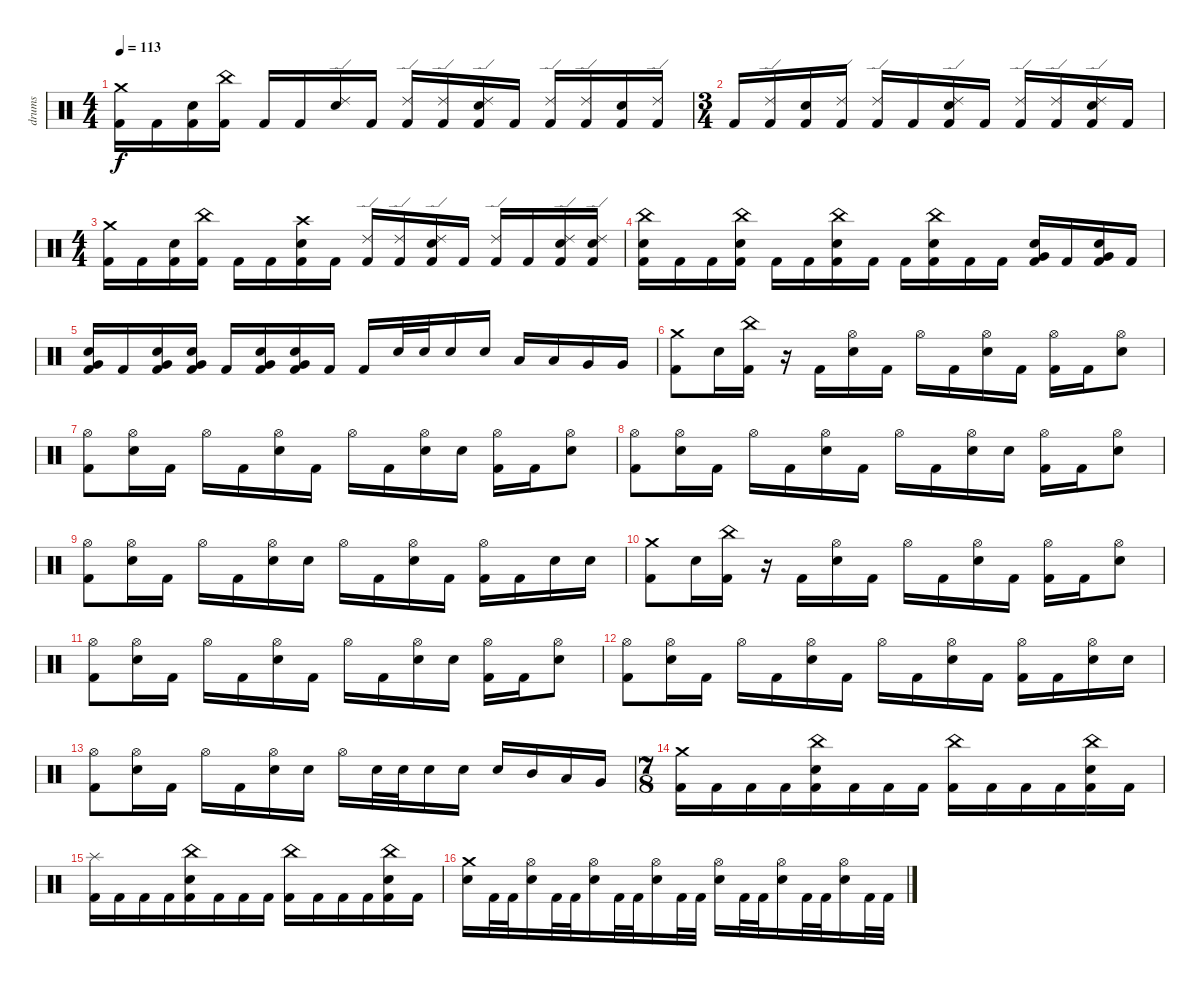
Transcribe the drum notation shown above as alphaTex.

\track ("drums" "drums") {instrument percussion}
\staff {score}
\articulation defaults
\ts (4 4)
\tempo 113
\clef neutral
\ks c
("Crash medium (hit)" "Kick (hit) 2").16{dy f} "Kick (hit) 2".16 ("Kick (hit) 2" "Electric Snare (hit)").16 ("China (hit)" "Kick (hit) 2").16 "Kick (hit) 2".16 "Kick (hit) 2".16 ("Ride (edge) 2" "Electric Snare (hit)").16 "Kick (hit) 2".16 ("Ride (edge) 2" "Kick (hit) 2").16 ("Ride (edge) 2" "Kick (hit) 2").16 ("Ride (edge) 2" "Kick (hit) 2" "Electric Snare (hit)").16 "Kick (hit) 2".16 ("Ride (edge) 2" "Kick (hit) 2").16 ("Ride (edge) 2" "Kick (hit) 2").16 ("Electric Snare (hit)" "Kick (hit) 2").16 ("Ride (edge) 2" "Kick (hit) 2").16 |
\ts (3 4)
"Kick (hit) 2".16 ("Ride (edge) 2" "Kick (hit) 2").16 ("Electric Snare (hit)" "Kick (hit) 2").16 ("Ride (edge) 2" "Kick (hit) 2").16 ("Ride (edge) 2" "Kick (hit) 2").16 "Kick (hit) 2".16 ("Ride (edge) 2" "Electric Snare (hit)" "Kick (hit) 2").16 "Kick (hit) 2".16 ("Ride (edge) 2" "Kick (hit) 2").16 ("Ride (edge) 2" "Kick (hit) 2").16 ("Ride (edge) 2" "Electric Snare (hit)" "Kick (hit) 2").16 "Kick (hit) 2".16 |
\ts (4 4)
("Crash medium (hit)" "Kick (hit) 2").16 "Kick (hit) 2".16 ("Electric Snare (hit)" "Kick (hit) 2").16 ("China (hit)" "Kick (hit) 2").16 "Kick (hit) 2".16 "Kick (hit) 2".16 ("Crash high (hit)" "Electric Snare (hit)" "Kick (hit) 2").16 "Kick (hit) 2".16 ("Ride (edge) 2" "Kick (hit) 2").16 ("Ride (edge) 2" "Kick (hit) 2").16 ("Ride (edge) 2" "Electric Snare (hit)" "Kick (hit) 2").16 "Kick (hit) 2".16 ("Ride (edge) 2" "Kick (hit) 2").16 "Kick (hit) 2".16 ("Ride (edge) 2" "Electric Snare (hit)" "Kick (hit) 2").16 ("Ride (edge) 2" "Electric Snare (hit)" "Kick (hit) 2").16 |
("China (hit)" "Kick (hit) 2" "Electric Snare (hit)").16 "Kick (hit) 2".16 "Kick (hit) 2".16 ("China (hit)" "Electric Snare (hit)" "Kick (hit) 2").16 "Kick (hit) 2".16 "Kick (hit) 2".16 ("China (hit)" "Electric Snare (hit)" "Kick (hit) 2").16 "Kick (hit) 2".16 "Kick (hit) 2".16 ("China (hit)" "Electric Snare (hit)" "Kick (hit) 2").16 "Kick (hit) 2".16 "Kick (hit) 2".16 ("Very Low Tom (hit)" "Electric Snare (hit)" "Kick (hit) 2").16 "Kick (hit) 2".16 ("Very Low Tom (hit)" "Electric Snare (hit)" "Kick (hit) 2").16 "Kick (hit) 2".16 |
("Very Low Tom (hit)" "Kick (hit) 2" "Electric Snare (hit)").16 "Kick (hit) 2".16 ("Very Low Tom (hit)" "Electric Snare (hit)" "Kick (hit) 2").16 ("Very Low Tom (hit)" "Electric Snare (hit)" "Kick (hit) 2").16 "Kick (hit) 2".16 ("Very Low Tom (hit)" "Electric Snare (hit)" "Kick (hit) 2").16 ("Very Low Tom (hit)" "Electric Snare (hit)" "Kick (hit) 2").16 "Kick (hit) 2".16 "Kick (hit) 2".16 "Electric Snare (hit)".32 "Electric Snare (hit)".32 "Electric Snare (hit)".16 "Electric Snare (hit)".16 "Low Tom (hit)".16 "Low Tom (hit)".16 "Very Low Tom (hit)".16 "Very Low Tom (hit)".16 |
("Crash medium (hit)" "Kick (hit) 2").8 "Electric Snare (hit)".16 ("China (hit)" "Kick (hit) 2").16 r.16 "Kick (hit) 2".16 ("Hi-Hat (open)" "Electric Snare (hit)").16 "Kick (hit) 2".16 "Hi-Hat (open)".16 "Kick (hit) 2".16 ("Hi-Hat (open)" "Electric Snare (hit)").16 "Kick (hit) 2".16 ("Hi-Hat (open)" "Kick (hit) 2").16 "Kick (hit) 2".16 ("Hi-Hat (open)" "Electric Snare (hit)").8 |
("Hi-Hat (open)" "Kick (hit) 2").8 ("Hi-Hat (open)" "Electric Snare (hit)").16 "Kick (hit) 2".16 "Hi-Hat (open)".16 "Kick (hit) 2".16 ("Hi-Hat (open)" "Electric Snare (hit)").16 "Kick (hit) 2".16 "Hi-Hat (open)".16 "Kick (hit) 2".16 ("Hi-Hat (open)" "Electric Snare (hit)").16 "Electric Snare (hit)".16 ("Hi-Hat (open)" "Kick (hit) 2").16 "Kick (hit) 2".16 ("Hi-Hat (open)" "Electric Snare (hit)").8 |
("Hi-Hat (open)" "Kick (hit) 2").8 ("Hi-Hat (open)" "Electric Snare (hit)").16 "Kick (hit) 2".16 "Hi-Hat (open)".16 "Kick (hit) 2".16 ("Hi-Hat (open)" "Electric Snare (hit)").16 "Kick (hit) 2".16 "Hi-Hat (open)".16 "Kick (hit) 2".16 ("Hi-Hat (open)" "Electric Snare (hit)").16 "Electric Snare (hit)".16 ("Hi-Hat (open)" "Kick (hit) 2").16 "Kick (hit) 2".16 ("Hi-Hat (open)" "Electric Snare (hit)").8 |
("Hi-Hat (open)" "Kick (hit) 2").8 ("Hi-Hat (open)" "Electric Snare (hit)").16 "Kick (hit) 2".16 "Hi-Hat (open)".16 "Kick (hit) 2".16 ("Hi-Hat (open)" "Electric Snare (hit)").16 "Electric Snare (hit)".16 "Hi-Hat (open)".16 "Kick (hit) 2".16 ("Electric Snare (hit)" "Hi-Hat (open)").16 "Kick (hit) 2".16 ("Hi-Hat (open)" "Kick (hit) 2").16 "Kick (hit) 2".16 "Electric Snare (hit)".16 "Electric Snare (hit)".16 |
("Crash medium (hit)" "Kick (hit) 2").8 "Electric Snare (hit)".16 ("China (hit)" "Kick (hit) 2").16 r.16 "Kick (hit) 2".16 ("Hi-Hat (open)" "Electric Snare (hit)").16 "Kick (hit) 2".16 "Hi-Hat (open)".16 "Kick (hit) 2".16 ("Hi-Hat (open)" "Electric Snare (hit)").16 "Kick (hit) 2".16 ("Hi-Hat (open)" "Kick (hit) 2").16 "Kick (hit) 2".16 ("Hi-Hat (open)" "Electric Snare (hit)").8 |
("Hi-Hat (open)" "Kick (hit) 2").8 ("Hi-Hat (open)" "Electric Snare (hit)").16 "Kick (hit) 2".16 "Hi-Hat (open)".16 "Kick (hit) 2".16 ("Hi-Hat (open)" "Electric Snare (hit)").16 "Kick (hit) 2".16 "Hi-Hat (open)".16 "Kick (hit) 2".16 ("Hi-Hat (open)" "Electric Snare (hit)").16 "Electric Snare (hit)".16 ("Hi-Hat (open)" "Kick (hit) 2").16 "Kick (hit) 2".16 ("Hi-Hat (open)" "Electric Snare (hit)").8 |
("Hi-Hat (open)" "Kick (hit) 2").8 ("Hi-Hat (open)" "Electric Snare (hit)").16 "Kick (hit) 2".16 "Hi-Hat (open)".16 "Kick (hit) 2".16 ("Hi-Hat (open)" "Electric Snare (hit)").16 "Kick (hit) 2".16 "Hi-Hat (open)".16 "Kick (hit) 2".16 ("Hi-Hat (open)" "Electric Snare (hit)").16 "Kick (hit) 2".16 ("Hi-Hat (open)" "Kick (hit) 2").16 "Kick (hit) 2".16 ("Hi-Hat (open)" "Electric Snare (hit)").16 "Electric Snare (hit)".16 |
("Hi-Hat (open)" "Kick (hit) 2").8 ("Hi-Hat (open)" "Electric Snare (hit)").16 "Kick (hit) 2".16 "Hi-Hat (open)".16 "Kick (hit) 2".16 ("Hi-Hat (open)" "Electric Snare (hit)").16 "Electric Snare (hit)".16 "Hi-Hat (open)".16 "Electric Snare (hit)".32 "Electric Snare (hit)".32 "Electric Snare (hit)".16 "Electric Snare (hit)".16 "Electric Snare (hit)".16 "Mid Tom (hit)".16 "Low Tom (hit)".16 "Very Low Tom (hit)".16 |
\ts (7 8)
("Crash medium (hit)" "Kick (hit) 2").16 "Kick (hit) 2".16 "Kick (hit) 2".16 "Kick (hit) 2".16 ("China (hit)" "Kick (hit) 2" "Electric Snare (hit)").16 "Kick (hit) 2".16 "Kick (hit) 2".16 "Kick (hit) 2".16 ("China (hit)" "Kick (hit) 2").16 "Kick (hit) 2".16 "Kick (hit) 2".16 "Kick (hit) 2".16 ("China (hit)" "Electric Snare (hit)" "Kick (hit) 2").16 "Kick (hit) 2".16 |
("Splash (hit)" "Kick (hit) 2").16 "Kick (hit) 2".16 "Kick (hit) 2".16 "Kick (hit) 2".16 ("China (hit)" "Kick (hit) 2" "Electric Snare (hit)").16 "Kick (hit) 2".16 "Kick (hit) 2".16 "Kick (hit) 2".16 ("China (hit)" "Kick (hit) 2").16 "Kick (hit) 2".16 "Kick (hit) 2".16 "Kick (hit) 2".16 ("China (hit)" "Electric Snare (hit)" "Kick (hit) 2").16 "Kick (hit) 2".16 |
("Crash medium (hit)" "Electric Snare (hit)").16 "Kick (hit) 2".32 "Kick (hit) 2".32 ("Hi-Hat (open)" "Electric Snare (hit)").16 "Kick (hit) 2".32 "Kick (hit) 2".32 ("Hi-Hat (open)" "Electric Snare (hit)").16 "Kick (hit) 2".32 "Kick (hit) 2".32 ("Hi-Hat (open)" "Electric Snare (hit)").16 "Kick (hit) 2".32 "Kick (hit) 2".32 ("Hi-Hat (open)" "Electric Snare (hit)").16 "Kick (hit) 2".32 "Kick (hit) 2".32 ("Hi-Hat (open)" "Electric Snare (hit)").16 "Kick (hit) 2".32 "Kick (hit) 2".32 ("Hi-Hat (open)" "Electric Snare (hit)").16 "Kick (hit) 2".32 "Kick (hit) 2".32
